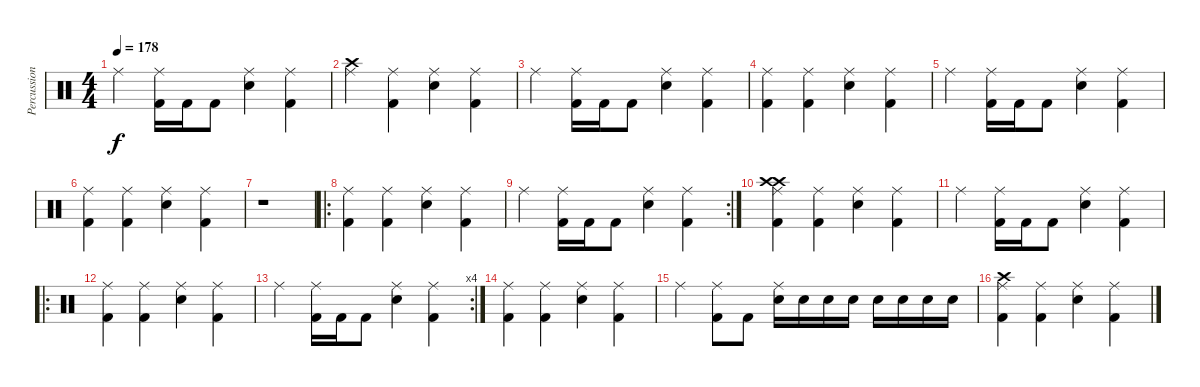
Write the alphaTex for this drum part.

\track ("Percussion" "Percussion") {instrument percussion}
\staff {score}
\articulation defaults
\ts (4 4)
\tempo 178
\clef neutral
\ks c "Ride (middle)".4{dy f}
("Kick (hit) 2" "Ride (middle)").16 "Kick (hit) 2".16 "Kick (hit) 2".8 ("Snare (hit) 2" "Ride (middle)").4 ("Kick (hit) 2" "Ride (middle)").4 |
("Crash high (hit)" "Ride (middle)").4 ("Kick (hit) 2" "Ride (middle)").4 ("Snare (hit) 2" "Ride (middle)").4 ("Kick (hit) 2" "Ride (middle)").4 |
"Ride (middle)".4 ("Kick (hit) 2" "Ride (middle)").16 "Kick (hit) 2".16 "Kick (hit) 2".8 ("Snare (hit) 2" "Ride (middle)").4 ("Kick (hit) 2" "Ride (middle)").4 |
("Kick (hit) 2" "Ride (middle)").4 ("Kick (hit) 2" "Ride (middle)").4 ("Snare (hit) 2" "Ride (middle)").4 ("Kick (hit) 2" "Ride (middle)").4 |
"Ride (middle)".4 ("Kick (hit) 2" "Ride (middle)").16 "Kick (hit) 2".16 "Kick (hit) 2".8 ("Snare (hit) 2" "Ride (middle)").4 ("Kick (hit) 2" "Ride (middle)").4 |
("Kick (hit) 2" "Ride (middle)").4 ("Kick (hit) 2" "Ride (middle)").4 ("Snare (hit) 2" "Ride (middle)").4 ("Kick (hit) 2" "Ride (middle)").4 |
r.1 |
\ro
("Kick (hit) 2" "Ride (middle)").4 ("Kick (hit) 2" "Ride (middle)").4 ("Snare (hit) 2" "Ride (middle)").4 ("Kick (hit) 2" "Ride (middle)").4 |
\rc 2 "Ride (middle)".4
("Kick (hit) 2" "Ride (middle)").16 "Kick (hit) 2".16 "Kick (hit) 2".8 ("Snare (hit) 2" "Ride (middle)").4 ("Kick (hit) 2" "Ride (middle)").4 |
("Crash high (hit)" "Crash high (hit)" "Kick (hit) 2" "Ride (middle)").4 ("Kick (hit) 2" "Ride (middle)").4 ("Snare (hit) 2" "Ride (middle)").4 ("Kick (hit) 2" "Ride (middle)").4 |
"Ride (middle)".4 ("Kick (hit) 2" "Ride (middle)").16 "Kick (hit) 2".16 "Kick (hit) 2".8 ("Snare (hit) 2" "Ride (middle)").4 ("Kick (hit) 2" "Ride (middle)").4 |
\ro
("Kick (hit) 2" "Ride (middle)").4 ("Kick (hit) 2" "Ride (middle)").4 ("Snare (hit) 2" "Ride (middle)").4 ("Kick (hit) 2" "Ride (middle)").4 |
\rc 4 "Ride (middle)".4
("Kick (hit) 2" "Ride (middle)").16 "Kick (hit) 2".16 "Kick (hit) 2".8 ("Snare (hit) 2" "Ride (middle)").4 ("Kick (hit) 2" "Ride (middle)").4 |
("Kick (hit) 2" "Ride (middle)").4 ("Kick (hit) 2" "Ride (middle)").4 ("Snare (hit) 2" "Ride (middle)").4 ("Kick (hit) 2" "Ride (middle)").4 |
"Ride (middle)".4 ("Kick (hit) 2" "Ride (middle)").8 "Kick (hit) 2".8 ("Snare (hit) 2" "Ride (middle)").16 "Snare (hit) 2".16 "Snare (hit) 2".16 "Snare (hit) 2".16 "Snare (hit) 2".16 "Snare (hit) 2".16 "Snare (hit) 2".16 "Snare (hit) 2".16 |
("Crash high (hit)" "Kick (hit) 2" "Ride (middle)").4 ("Kick (hit) 2" "Ride (middle)").4 ("Snare (hit) 2" "Ride (middle)").4 ("Kick (hit) 2" "Ride (middle)").4
